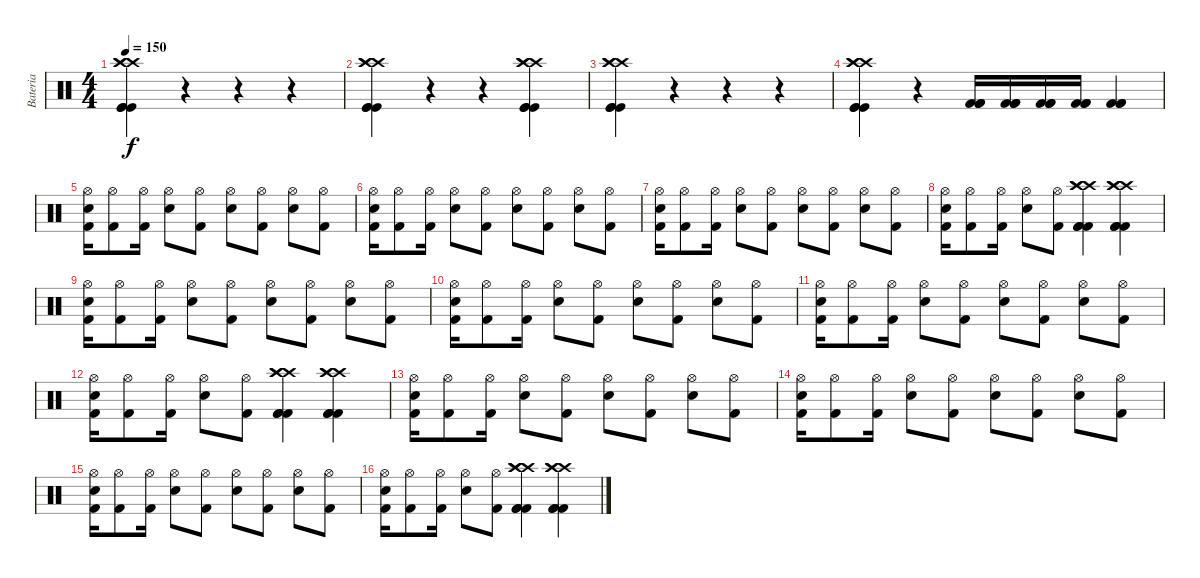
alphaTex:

\track ("Bateria" "Bateria") {instrument percussion}
\staff {score}
\articulation defaults
\ts (4 4)
\tempo 150
\clef neutral
\ks c
("Crash high (hit)" "Crash high (hit)" "Crash high (hit)" "Kick (hit)" "Kick (hit)" "Kick (hit)").4{dy f} r.4 r.4 r.4 |
("Crash high (hit)" "Crash high (hit)" "Crash high (hit)" "Kick (hit)" "Kick (hit)" "Kick (hit)").4 r.4 r.4 ("Crash high (hit)" "Crash high (hit)" "Crash high (hit)" "Kick (hit)" "Kick (hit)" "Kick (hit)").4 |
("Crash high (hit)" "Crash high (hit)" "Crash high (hit)" "Kick (hit)" "Kick (hit)" "Kick (hit)").4 r.4 r.4 r.4 |
("Crash high (hit)" "Crash high (hit)" "Crash high (hit)" "Kick (hit)" "Kick (hit)" "Kick (hit)").4 r.4 ("Kick (hit) 2" "Kick (hit) 2" "Kick (hit) 2").16 ("Kick (hit) 2" "Kick (hit) 2" "Kick (hit) 2").16 ("Kick (hit) 2" "Kick (hit) 2" "Kick (hit) 2").16 ("Kick (hit) 2" "Kick (hit) 2" "Kick (hit) 2").16 ("Kick (hit) 2" "Kick (hit) 2" "Kick (hit) 2").4 |
("Hi-Hat (open)" "Electric Snare (hit)" "Kick (hit) 2").16 ("Hi-Hat (open)" "Kick (hit) 2").8 ("Hi-Hat (open)" "Kick (hit) 2").16 ("Hi-Hat (open)" "Electric Snare (hit)").8 ("Hi-Hat (open)" "Kick (hit) 2").8 ("Hi-Hat (open)" "Electric Snare (hit)").8 ("Hi-Hat (open)" "Kick (hit) 2").8 ("Hi-Hat (open)" "Electric Snare (hit)").8 ("Hi-Hat (open)" "Kick (hit) 2").8 |
("Hi-Hat (open)" "Electric Snare (hit)" "Kick (hit) 2").16 ("Hi-Hat (open)" "Kick (hit) 2").8 ("Hi-Hat (open)" "Kick (hit) 2").16 ("Hi-Hat (open)" "Electric Snare (hit)").8 ("Hi-Hat (open)" "Kick (hit) 2").8 ("Hi-Hat (open)" "Electric Snare (hit)").8 ("Hi-Hat (open)" "Kick (hit) 2").8 ("Hi-Hat (open)" "Electric Snare (hit)").8 ("Hi-Hat (open)" "Kick (hit) 2").8 |
("Hi-Hat (open)" "Electric Snare (hit)" "Kick (hit) 2").16 ("Hi-Hat (open)" "Kick (hit) 2").8 ("Hi-Hat (open)" "Kick (hit) 2").16 ("Hi-Hat (open)" "Electric Snare (hit)").8 ("Hi-Hat (open)" "Kick (hit) 2").8 ("Hi-Hat (open)" "Electric Snare (hit)").8 ("Hi-Hat (open)" "Kick (hit) 2").8 ("Hi-Hat (open)" "Electric Snare (hit)").8 ("Hi-Hat (open)" "Kick (hit) 2").8 |
("Hi-Hat (open)" "Electric Snare (hit)" "Kick (hit) 2").16 ("Hi-Hat (open)" "Kick (hit) 2").8 ("Hi-Hat (open)" "Kick (hit) 2").16 ("Hi-Hat (open)" "Electric Snare (hit)").8 ("Hi-Hat (open)" "Kick (hit) 2").8 ("Crash high (hit)" "Crash high (hit)" "Crash high (hit)" "Kick (hit) 2" "Kick (hit) 2" "Kick (hit) 2").4 ("Crash high (hit)" "Crash high (hit)" "Crash high (hit)" "Kick (hit) 2" "Kick (hit) 2" "Kick (hit) 2").4 |
("Hi-Hat (open)" "Electric Snare (hit)" "Kick (hit) 2").16 ("Hi-Hat (open)" "Kick (hit) 2").8 ("Hi-Hat (open)" "Kick (hit) 2").16 ("Hi-Hat (open)" "Electric Snare (hit)").8 ("Hi-Hat (open)" "Kick (hit) 2").8 ("Hi-Hat (open)" "Electric Snare (hit)").8 ("Hi-Hat (open)" "Kick (hit) 2").8 ("Hi-Hat (open)" "Electric Snare (hit)").8 ("Hi-Hat (open)" "Kick (hit) 2").8 |
("Hi-Hat (open)" "Electric Snare (hit)" "Kick (hit) 2").16 ("Hi-Hat (open)" "Kick (hit) 2").8 ("Hi-Hat (open)" "Kick (hit) 2").16 ("Hi-Hat (open)" "Electric Snare (hit)").8 ("Hi-Hat (open)" "Kick (hit) 2").8 ("Hi-Hat (open)" "Electric Snare (hit)").8 ("Hi-Hat (open)" "Kick (hit) 2").8 ("Hi-Hat (open)" "Electric Snare (hit)").8 ("Hi-Hat (open)" "Kick (hit) 2").8 |
("Hi-Hat (open)" "Electric Snare (hit)" "Kick (hit) 2").16 ("Hi-Hat (open)" "Kick (hit) 2").8 ("Hi-Hat (open)" "Kick (hit) 2").16 ("Hi-Hat (open)" "Electric Snare (hit)").8 ("Hi-Hat (open)" "Kick (hit) 2").8 ("Hi-Hat (open)" "Electric Snare (hit)").8 ("Hi-Hat (open)" "Kick (hit) 2").8 ("Hi-Hat (open)" "Electric Snare (hit)").8 ("Hi-Hat (open)" "Kick (hit) 2").8 |
("Hi-Hat (open)" "Electric Snare (hit)" "Kick (hit) 2").16 ("Hi-Hat (open)" "Kick (hit) 2").8 ("Hi-Hat (open)" "Kick (hit) 2").16 ("Hi-Hat (open)" "Electric Snare (hit)").8 ("Hi-Hat (open)" "Kick (hit) 2").8 ("Crash high (hit)" "Crash high (hit)" "Crash high (hit)" "Kick (hit) 2" "Kick (hit) 2" "Kick (hit) 2").4 ("Crash high (hit)" "Crash high (hit)" "Crash high (hit)" "Kick (hit) 2" "Kick (hit) 2" "Kick (hit) 2").4 |
("Hi-Hat (open)" "Electric Snare (hit)" "Kick (hit) 2").16 ("Hi-Hat (open)" "Kick (hit) 2").8 ("Hi-Hat (open)" "Kick (hit) 2").16 ("Hi-Hat (open)" "Electric Snare (hit)").8 ("Hi-Hat (open)" "Kick (hit) 2").8 ("Hi-Hat (open)" "Electric Snare (hit)").8 ("Hi-Hat (open)" "Kick (hit) 2").8 ("Hi-Hat (open)" "Electric Snare (hit)").8 ("Hi-Hat (open)" "Kick (hit) 2").8 |
("Hi-Hat (open)" "Electric Snare (hit)" "Kick (hit) 2").16 ("Hi-Hat (open)" "Kick (hit) 2").8 ("Hi-Hat (open)" "Kick (hit) 2").16 ("Hi-Hat (open)" "Electric Snare (hit)").8 ("Hi-Hat (open)" "Kick (hit) 2").8 ("Hi-Hat (open)" "Electric Snare (hit)").8 ("Hi-Hat (open)" "Kick (hit) 2").8 ("Hi-Hat (open)" "Electric Snare (hit)").8 ("Hi-Hat (open)" "Kick (hit) 2").8 |
("Hi-Hat (open)" "Electric Snare (hit)" "Kick (hit) 2").16 ("Hi-Hat (open)" "Kick (hit) 2").8 ("Hi-Hat (open)" "Kick (hit) 2").16 ("Hi-Hat (open)" "Electric Snare (hit)").8 ("Hi-Hat (open)" "Kick (hit) 2").8 ("Hi-Hat (open)" "Electric Snare (hit)").8 ("Hi-Hat (open)" "Kick (hit) 2").8 ("Hi-Hat (open)" "Electric Snare (hit)").8 ("Hi-Hat (open)" "Kick (hit) 2").8 |
("Hi-Hat (open)" "Electric Snare (hit)" "Kick (hit) 2").16 ("Hi-Hat (open)" "Kick (hit) 2").8 ("Hi-Hat (open)" "Kick (hit) 2").16 ("Hi-Hat (open)" "Electric Snare (hit)").8 ("Hi-Hat (open)" "Kick (hit) 2").8 ("Crash high (hit)" "Crash high (hit)" "Crash high (hit)" "Kick (hit) 2" "Kick (hit) 2" "Kick (hit) 2").4 ("Crash high (hit)" "Crash high (hit)" "Crash high (hit)" "Kick (hit) 2" "Kick (hit) 2" "Kick (hit) 2").4
